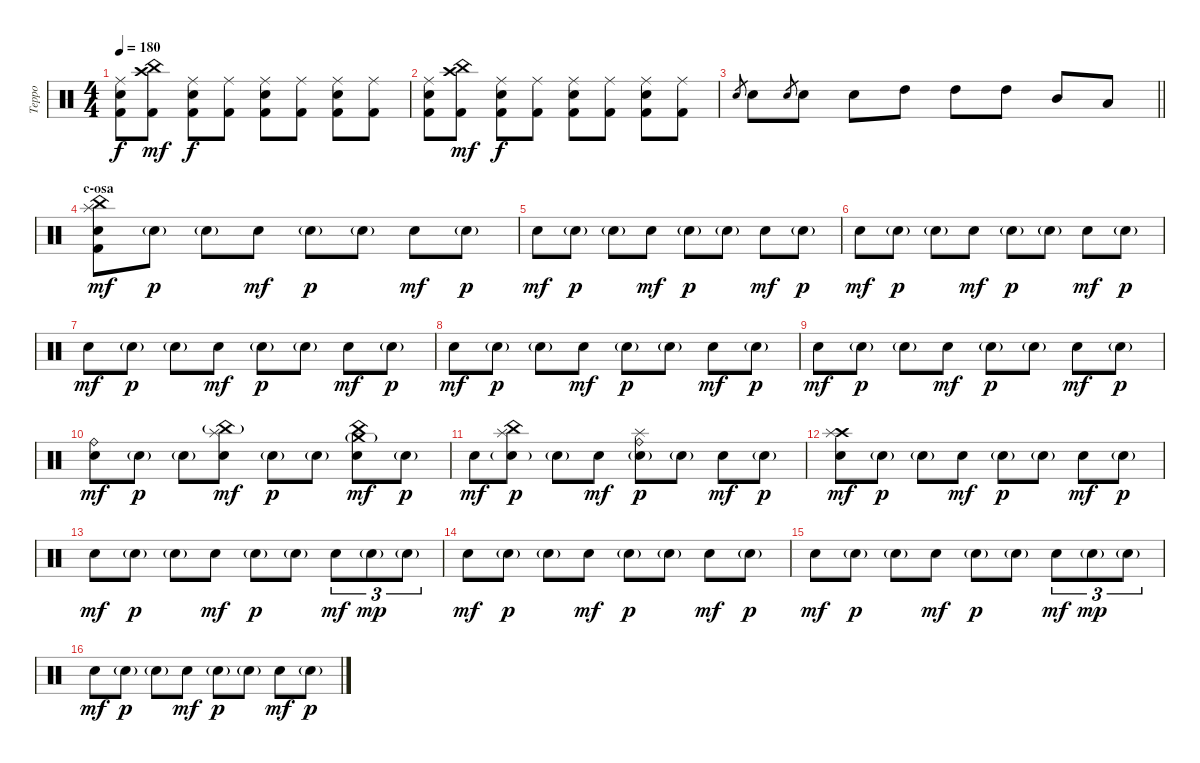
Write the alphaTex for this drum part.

\track ("Teppo" "Teppo") {instrument percussion}
\staff {score}
\articulation defaults
\ts (4 4)
\tempo 180
\clef neutral
\ks c
("Ride (middle)" "Electric Snare (hit)" "Kick (hit) 2").8{dy f} ("Crash high (hit)" "China (hit)" "Kick (hit) 2").8{dy mf} ("Ride (middle)" "Electric Snare (hit)" "Kick (hit) 2").8{dy f} ("Ride (middle)" "Kick (hit) 2").8 ("Ride (middle)" "Electric Snare (hit)" "Kick (hit) 2").8 ("Ride (middle)" "Kick (hit) 2").8 ("Ride (middle)" "Electric Snare (hit)" "Kick (hit) 2").8 ("Ride (middle)" "Kick (hit) 2").8 |
("Ride (middle)" "Electric Snare (hit)" "Kick (hit) 2").8 ("Crash high (hit)" "China (hit)" "Kick (hit) 2").8{dy mf} ("Ride (middle)" "Electric Snare (hit)" "Kick (hit) 2").8{dy f} ("Ride (middle)" "Kick (hit) 2").8 ("Ride (middle)" "Electric Snare (hit)" "Kick (hit) 2").8 ("Ride (middle)" "Kick (hit) 2").8 ("Ride (middle)" "Electric Snare (hit)" "Kick (hit) 2").8 ("Ride (middle)" "Kick (hit) 2").8 |
\barLineRight lightlight "Electric Snare (hit)".8{gr} "Electric Snare (hit)".8 "Electric Snare (hit)".8{gr} "Electric Snare (hit)".8 "Electric Snare (hit)".8 "High Tom (hit)".8 "High Tom (hit)".8 "High Tom (hit)".8 "Mid Tom (hit)".8 "Low Tom (hit)".8
|
\section ("" "c-osa")
("China (hit)" "Splash (hit)" "Electric Snare (hit)" "Kick (hit) 2").8{dy mf} "Electric Snare (hit)"{g}.8{dy p} "Electric Snare (hit)"{g}.8 "Electric Snare (hit)".8{dy mf} "Electric Snare (hit)"{g}.8{dy p} "Electric Snare (hit)"{g}.8 "Electric Snare (hit)".8{dy mf} "Electric Snare (hit)"{g}.8{dy p} |
"Electric Snare (hit)".8{dy mf} "Electric Snare (hit)"{g}.8{dy p} "Electric Snare (hit)"{g}.8 "Electric Snare (hit)".8{dy mf} "Electric Snare (hit)"{g}.8{dy p} "Electric Snare (hit)"{g}.8 "Electric Snare (hit)".8{dy mf} "Electric Snare (hit)"{g}.8{dy p} |
"Electric Snare (hit)".8{dy mf} "Electric Snare (hit)"{g}.8{dy p} "Electric Snare (hit)"{g}.8 "Electric Snare (hit)".8{dy mf} "Electric Snare (hit)"{g}.8{dy p} "Electric Snare (hit)"{g}.8 "Electric Snare (hit)".8{dy mf} "Electric Snare (hit)"{g}.8{dy p} |
"Electric Snare (hit)".8{dy mf} "Electric Snare (hit)"{g}.8{dy p} "Electric Snare (hit)"{g}.8 "Electric Snare (hit)".8{dy mf} "Electric Snare (hit)"{g}.8{dy p} "Electric Snare (hit)"{g}.8 "Electric Snare (hit)".8{dy mf} "Electric Snare (hit)"{g}.8{dy p} |
"Electric Snare (hit)".8{dy mf} "Electric Snare (hit)"{g}.8{dy p} "Electric Snare (hit)"{g}.8 "Electric Snare (hit)".8{dy mf} "Electric Snare (hit)"{g}.8{dy p} "Electric Snare (hit)"{g}.8 "Electric Snare (hit)".8{dy mf} "Electric Snare (hit)"{g}.8{dy p} |
"Electric Snare (hit)".8{dy mf} "Electric Snare (hit)"{g}.8{dy p} "Electric Snare (hit)"{g}.8 "Electric Snare (hit)".8{dy mf} "Electric Snare (hit)"{g}.8{dy p} "Electric Snare (hit)"{g}.8 "Electric Snare (hit)".8{dy mf} "Electric Snare (hit)"{g}.8{dy p} |
("Ride (bell)" "Electric Snare (hit)").8{dy mf} "Electric Snare (hit)"{g}.8{dy p} "Electric Snare (hit)"{g}.8 ("Splash (hit)" "China (hit)"{g} "Electric Snare (hit)").8{dy mf} "Electric Snare (hit)"{g}.8{dy p} "Electric Snare (hit)"{g}.8 ("China (hit)" "Crash medium (hit)"{g} "Electric Snare (hit)").8{dy mf} "Electric Snare (hit)"{g}.8{dy p} |
"Electric Snare (hit)".8{dy mf} ("Splash (hit)" "China (hit)" "Electric Snare (hit)"{g}).8{dy p} "Electric Snare (hit)"{g}.8 "Electric Snare (hit)".8{dy mf} ("Ride (bell)" "Splash (hit)" "Electric Snare (hit)"{g}).8{dy p} "Electric Snare (hit)"{g}.8 "Electric Snare (hit)".8{dy mf} "Electric Snare (hit)"{g}.8{dy p} |
("Crash high (hit)" "Splash (hit)" "Electric Snare (hit)").8{dy mf} "Electric Snare (hit)"{g}.8{dy p} "Electric Snare (hit)"{g}.8 "Electric Snare (hit)".8{dy mf} "Electric Snare (hit)"{g}.8{dy p} "Electric Snare (hit)"{g}.8 "Electric Snare (hit)".8{dy mf} "Electric Snare (hit)"{g}.8{dy p} |
"Electric Snare (hit)".8{dy mf} "Electric Snare (hit)"{g}.8{dy p} "Electric Snare (hit)"{g}.8 "Electric Snare (hit)".8{dy mf} "Electric Snare (hit)"{g}.8{dy p} "Electric Snare (hit)"{g}.8 "Electric Snare (hit)".8{tu (3 2) dy mf} "Electric Snare (hit)"{g}.8{tu (3 2) dy mp} "Electric Snare (hit)"{g}.8{tu (3 2)} |
"Electric Snare (hit)".8{dy mf} "Electric Snare (hit)"{g}.8{dy p} "Electric Snare (hit)"{g}.8 "Electric Snare (hit)".8{dy mf} "Electric Snare (hit)"{g}.8{dy p} "Electric Snare (hit)"{g}.8 "Electric Snare (hit)".8{dy mf} "Electric Snare (hit)"{g}.8{dy p} |
"Electric Snare (hit)".8{dy mf} "Electric Snare (hit)"{g}.8{dy p} "Electric Snare (hit)"{g}.8 "Electric Snare (hit)".8{dy mf} "Electric Snare (hit)"{g}.8{dy p} "Electric Snare (hit)"{g}.8 "Electric Snare (hit)".8{tu (3 2) dy mf} "Electric Snare (hit)"{g}.8{tu (3 2) dy mp} "Electric Snare (hit)"{g}.8{tu (3 2)} |
"Electric Snare (hit)".8{dy mf} "Electric Snare (hit)"{g}.8{dy p} "Electric Snare (hit)"{g}.8 "Electric Snare (hit)".8{dy mf} "Electric Snare (hit)"{g}.8{dy p} "Electric Snare (hit)"{g}.8 "Electric Snare (hit)".8{dy mf} "Electric Snare (hit)"{g}.8{dy p}
